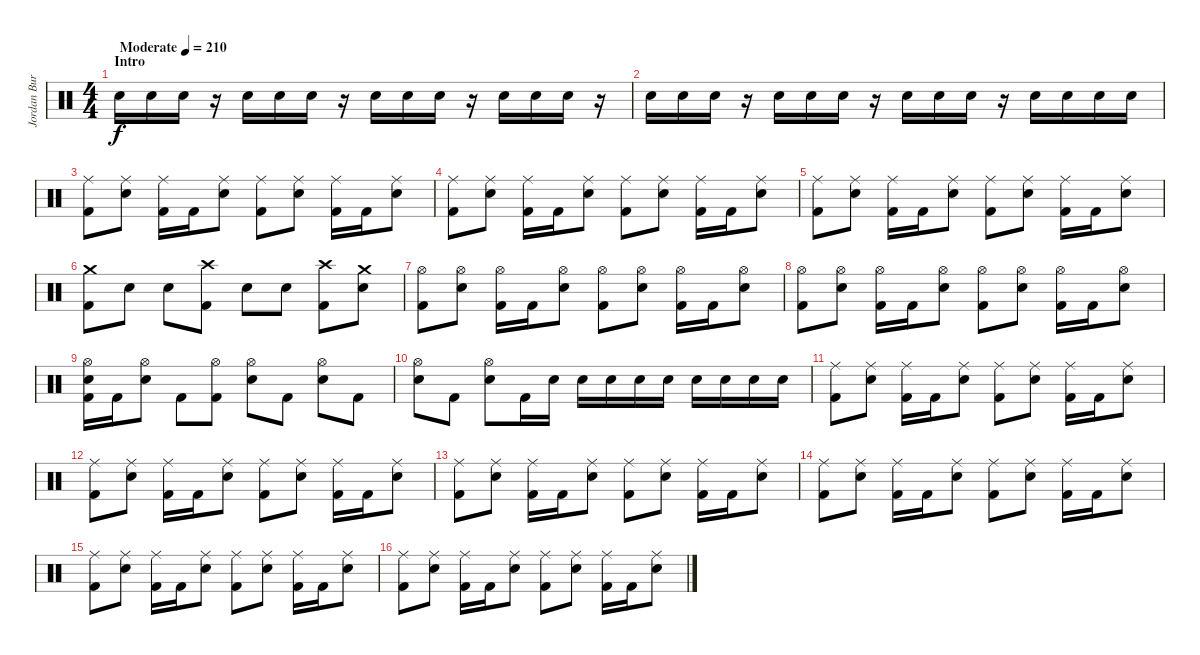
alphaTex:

\track ("Jordan Burns" "Jordan Bur") {instrument percussion}
\staff {score}
\articulation defaults
\ts (4 4)
\section ("" "Intro")
\tempo (210 "Moderate")
\clef neutral
\ks c "Electric Snare (hit)".16{dy f} "Electric Snare (hit)".16 "Electric Snare (hit)".16
r.16 "Electric Snare (hit)".16 "Electric Snare (hit)".16 "Electric Snare (hit)".16 r.16 "Electric Snare (hit)".16 "Electric Snare (hit)".16 "Electric Snare (hit)".16 r.16 "Electric Snare (hit)".16 "Electric Snare (hit)".16 "Electric Snare (hit)".16 r.16 |
"Electric Snare (hit)".16 "Electric Snare (hit)".16 "Electric Snare (hit)".16 r.16 "Electric Snare (hit)".16 "Electric Snare (hit)".16 "Electric Snare (hit)".16 r.16 "Electric Snare (hit)".16 "Electric Snare (hit)".16 "Electric Snare (hit)".16 r.16 "Electric Snare (hit)".16 "Electric Snare (hit)".16 "Electric Snare (hit)".16 "Electric Snare (hit)".16 |
("Ride (middle)" "Kick (hit) 2").8 ("Ride (middle)" "Electric Snare (hit)").8 ("Ride (middle)" "Kick (hit) 2").16 "Kick (hit) 2".16 ("Ride (middle)" "Electric Snare (hit)").8 ("Ride (middle)" "Kick (hit) 2").8 ("Ride (middle)" "Electric Snare (hit)").8 ("Ride (middle)" "Kick (hit) 2").16 "Kick (hit) 2".16 ("Ride (middle)" "Electric Snare (hit)").8 |
("Ride (middle)" "Kick (hit) 2").8 ("Ride (middle)" "Electric Snare (hit)").8 ("Ride (middle)" "Kick (hit) 2").16 "Kick (hit) 2".16 ("Ride (middle)" "Electric Snare (hit)").8 ("Ride (middle)" "Kick (hit) 2").8 ("Ride (middle)" "Electric Snare (hit)").8 ("Ride (middle)" "Kick (hit) 2").16 "Kick (hit) 2".16 ("Ride (middle)" "Electric Snare (hit)").8 |
("Ride (middle)" "Kick (hit) 2").8 ("Ride (middle)" "Electric Snare (hit)").8 ("Ride (middle)" "Kick (hit) 2").16 "Kick (hit) 2".16 ("Ride (middle)" "Electric Snare (hit)").8 ("Ride (middle)" "Kick (hit) 2").8 ("Ride (middle)" "Electric Snare (hit)").8 ("Ride (middle)" "Kick (hit) 2").16 "Kick (hit) 2".16 ("Ride (middle)" "Electric Snare (hit)").8 |
("Crash medium (hit)" "Kick (hit) 2").8 "Electric Snare (hit)".8 "Electric Snare (hit)".8 ("Crash high (hit)" "Kick (hit) 2").8 "Electric Snare (hit)".8 "Electric Snare (hit)".8 ("Crash high (hit)" "Kick (hit) 2").8 ("Crash medium (hit)" "Electric Snare (hit)").8 |
("Hi-Hat (open)" "Kick (hit) 2").8 ("Hi-Hat (open)" "Electric Snare (hit)").8 ("Hi-Hat (open)" "Kick (hit) 2").16 "Kick (hit) 2".16 ("Hi-Hat (open)" "Electric Snare (hit)").8 ("Hi-Hat (open)" "Kick (hit) 2").8 ("Hi-Hat (open)" "Electric Snare (hit)").8 ("Hi-Hat (open)" "Kick (hit) 2").16 "Kick (hit) 2".16 ("Hi-Hat (open)" "Electric Snare (hit)").8 |
("Hi-Hat (open)" "Kick (hit) 2").8 ("Hi-Hat (open)" "Electric Snare (hit)").8 ("Hi-Hat (open)" "Kick (hit) 2").16 "Kick (hit) 2".16 ("Hi-Hat (open)" "Electric Snare (hit)").8 ("Hi-Hat (open)" "Kick (hit) 2").8 ("Hi-Hat (open)" "Electric Snare (hit)").8 ("Hi-Hat (open)" "Kick (hit) 2").16 "Kick (hit) 2".16 ("Hi-Hat (open)" "Electric Snare (hit)").8 |
("Hi-Hat (open)" "Electric Snare (hit)" "Kick (hit) 2").16 "Kick (hit) 2".16 ("Hi-Hat (open)" "Electric Snare (hit)").8 "Kick (hit) 2".8 ("Hi-Hat (open)" "Kick (hit) 2").8 ("Hi-Hat (open)" "Electric Snare (hit)").8 "Kick (hit) 2".8 ("Hi-Hat (open)" "Electric Snare (hit)").8 "Kick (hit) 2".8 |
("Hi-Hat (open)" "Electric Snare (hit)").8 "Kick (hit) 2".8 ("Hi-Hat (open)" "Electric Snare (hit)").8 "Kick (hit) 2".16 "Electric Snare (hit)".16 "Electric Snare (hit)".16 "Electric Snare (hit)".16 "Electric Snare (hit)".16 "Electric Snare (hit)".16 "Electric Snare (hit)".16 "Electric Snare (hit)".16 "Electric Snare (hit)".16 "Electric Snare (hit)".16 |
("Ride (middle)" "Kick (hit) 2").8 ("Ride (middle)" "Electric Snare (hit)").8 ("Ride (middle)" "Kick (hit) 2").16 "Kick (hit) 2".16 ("Ride (middle)" "Electric Snare (hit)").8 ("Ride (middle)" "Kick (hit) 2").8 ("Ride (middle)" "Electric Snare (hit)").8 ("Ride (middle)" "Kick (hit) 2").16 "Kick (hit) 2".16 ("Ride (middle)" "Electric Snare (hit)").8 |
("Ride (middle)" "Kick (hit) 2").8 ("Ride (middle)" "Electric Snare (hit)").8 ("Ride (middle)" "Kick (hit) 2").16 "Kick (hit) 2".16 ("Ride (middle)" "Electric Snare (hit)").8 ("Ride (middle)" "Kick (hit) 2").8 ("Ride (middle)" "Electric Snare (hit)").8 ("Ride (middle)" "Kick (hit) 2").16 "Kick (hit) 2".16 ("Ride (middle)" "Electric Snare (hit)").8 |
("Ride (middle)" "Kick (hit) 2").8 ("Ride (middle)" "Electric Snare (hit)").8 ("Ride (middle)" "Kick (hit) 2").16 "Kick (hit) 2".16 ("Ride (middle)" "Electric Snare (hit)").8 ("Ride (middle)" "Kick (hit) 2").8 ("Ride (middle)" "Electric Snare (hit)").8 ("Ride (middle)" "Kick (hit) 2").16 "Kick (hit) 2".16 ("Ride (middle)" "Electric Snare (hit)").8 |
("Ride (middle)" "Kick (hit) 2").8 ("Ride (middle)" "Electric Snare (hit)").8 ("Ride (middle)" "Kick (hit) 2").16 "Kick (hit) 2".16 ("Ride (middle)" "Electric Snare (hit)").8 ("Ride (middle)" "Kick (hit) 2").8 ("Ride (middle)" "Electric Snare (hit)").8 ("Ride (middle)" "Kick (hit) 2").16 "Kick (hit) 2".16 ("Ride (middle)" "Electric Snare (hit)").8 |
("Ride (middle)" "Kick (hit) 2").8 ("Ride (middle)" "Electric Snare (hit)").8 ("Ride (middle)" "Kick (hit) 2").16 "Kick (hit) 2".16 ("Ride (middle)" "Electric Snare (hit)").8 ("Ride (middle)" "Kick (hit) 2").8 ("Ride (middle)" "Electric Snare (hit)").8 ("Ride (middle)" "Kick (hit) 2").16 "Kick (hit) 2".16 ("Ride (middle)" "Electric Snare (hit)").8 |
("Ride (middle)" "Kick (hit) 2").8 ("Ride (middle)" "Electric Snare (hit)").8 ("Ride (middle)" "Kick (hit) 2").16 "Kick (hit) 2".16 ("Ride (middle)" "Electric Snare (hit)").8 ("Ride (middle)" "Kick (hit) 2").8 ("Ride (middle)" "Electric Snare (hit)").8 ("Ride (middle)" "Kick (hit) 2").16 "Kick (hit) 2".16 ("Ride (middle)" "Electric Snare (hit)").8
